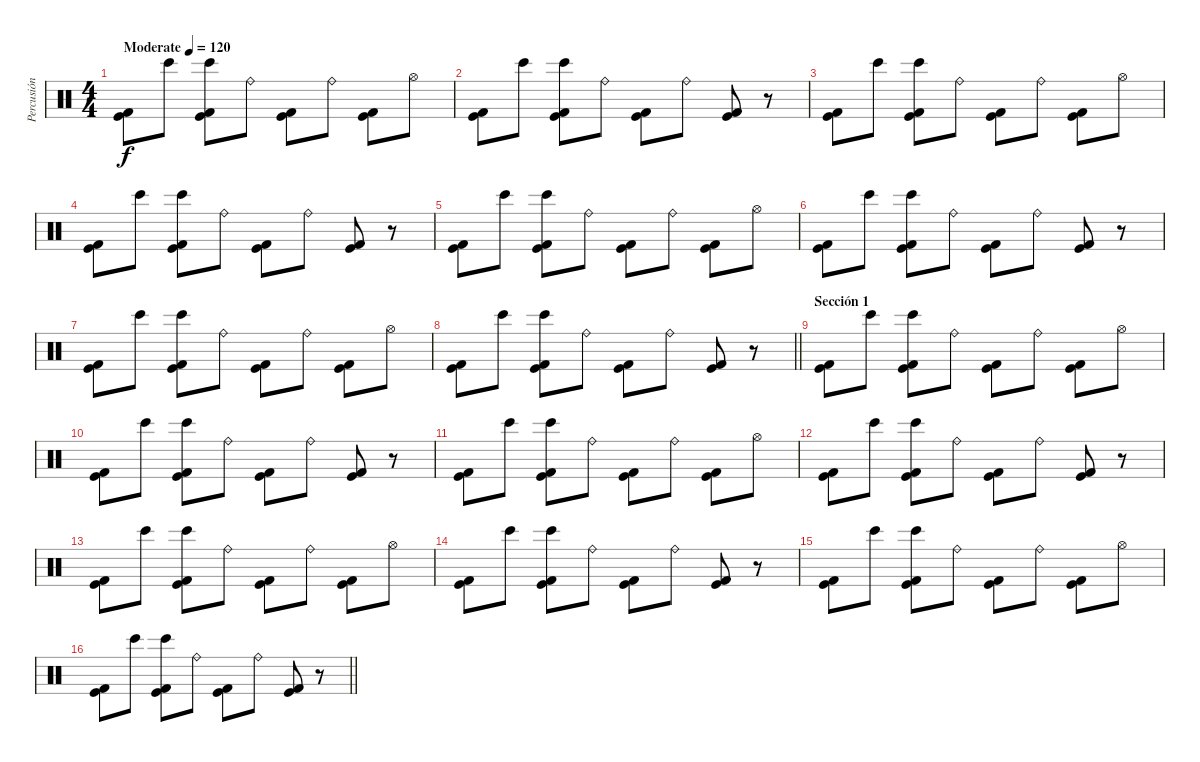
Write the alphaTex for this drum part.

\track ("Percusión 2" "Percusión ") {instrument percussion}
\staff {score}
\articulation defaults
\ts (4 4)
\tempo (120 "Moderate")
\clef neutral
\ks c
("Kick (hit)" "Kick (hit) 2").8{dy f} "Bongo High (hit)".8 ("Kick (hit) 2" "Kick (hit)" "Bongo High (hit)").8 "Ride (bell)".8 ("Kick (hit) 2" "Kick (hit)").8 "Ride (bell)".8 ("Kick (hit) 2" "Kick (hit)").8 "Hi-Hat (open)".8 |
("Kick (hit)" "Kick (hit) 2").8 "Bongo High (hit)".8 ("Kick (hit) 2" "Kick (hit)" "Bongo High (hit)").8 "Ride (bell)".8 ("Kick (hit) 2" "Kick (hit)").8 "Ride (bell)".8 ("Kick (hit) 2" "Kick (hit)").8 r.8 |
("Kick (hit)" "Kick (hit) 2").8 "Bongo High (hit)".8 ("Kick (hit) 2" "Kick (hit)" "Bongo High (hit)").8 "Ride (bell)".8 ("Kick (hit) 2" "Kick (hit)").8 "Ride (bell)".8 ("Kick (hit) 2" "Kick (hit)").8 "Hi-Hat (open)".8 |
("Kick (hit)" "Kick (hit) 2").8 "Bongo High (hit)".8 ("Kick (hit) 2" "Kick (hit)" "Bongo High (hit)").8 "Ride (bell)".8 ("Kick (hit) 2" "Kick (hit)").8 "Ride (bell)".8 ("Kick (hit) 2" "Kick (hit)").8 r.8 |
("Kick (hit)" "Kick (hit) 2").8 "Bongo High (hit)".8 ("Kick (hit) 2" "Kick (hit)" "Bongo High (hit)").8 "Ride (bell)".8 ("Kick (hit) 2" "Kick (hit)").8 "Ride (bell)".8 ("Kick (hit) 2" "Kick (hit)").8 "Hi-Hat (open)".8 |
("Kick (hit)" "Kick (hit) 2").8 "Bongo High (hit)".8 ("Kick (hit) 2" "Kick (hit)" "Bongo High (hit)").8 "Ride (bell)".8 ("Kick (hit) 2" "Kick (hit)").8 "Ride (bell)".8 ("Kick (hit) 2" "Kick (hit)").8 r.8 |
("Kick (hit)" "Kick (hit) 2").8 "Bongo High (hit)".8 ("Kick (hit) 2" "Kick (hit)" "Bongo High (hit)").8 "Ride (bell)".8 ("Kick (hit) 2" "Kick (hit)").8 "Ride (bell)".8 ("Kick (hit) 2" "Kick (hit)").8 "Hi-Hat (open)".8 |
\barLineRight lightlight
("Kick (hit)" "Kick (hit) 2").8 "Bongo High (hit)".8 ("Kick (hit) 2" "Kick (hit)" "Bongo High (hit)").8 "Ride (bell)".8 ("Kick (hit) 2" "Kick (hit)").8 "Ride (bell)".8 ("Kick (hit) 2" "Kick (hit)").8 r.8 |
\section ("" "Sección 1")
("Kick (hit)" "Kick (hit) 2").8 "Bongo High (hit)".8 ("Kick (hit) 2" "Kick (hit)" "Bongo High (hit)").8 "Ride (bell)".8 ("Kick (hit) 2" "Kick (hit)").8 "Ride (bell)".8 ("Kick (hit) 2" "Kick (hit)").8 "Hi-Hat (open)".8 |
("Kick (hit)" "Kick (hit) 2").8 "Bongo High (hit)".8 ("Kick (hit) 2" "Kick (hit)" "Bongo High (hit)").8 "Ride (bell)".8 ("Kick (hit) 2" "Kick (hit)").8 "Ride (bell)".8 ("Kick (hit) 2" "Kick (hit)").8 r.8 |
("Kick (hit)" "Kick (hit) 2").8 "Bongo High (hit)".8 ("Kick (hit) 2" "Kick (hit)" "Bongo High (hit)").8 "Ride (bell)".8 ("Kick (hit) 2" "Kick (hit)").8 "Ride (bell)".8 ("Kick (hit) 2" "Kick (hit)").8 "Hi-Hat (open)".8 |
("Kick (hit)" "Kick (hit) 2").8 "Bongo High (hit)".8 ("Kick (hit) 2" "Kick (hit)" "Bongo High (hit)").8 "Ride (bell)".8 ("Kick (hit) 2" "Kick (hit)").8 "Ride (bell)".8 ("Kick (hit) 2" "Kick (hit)").8 r.8 |
("Kick (hit)" "Kick (hit) 2").8 "Bongo High (hit)".8 ("Kick (hit) 2" "Kick (hit)" "Bongo High (hit)").8 "Ride (bell)".8 ("Kick (hit) 2" "Kick (hit)").8 "Ride (bell)".8 ("Kick (hit) 2" "Kick (hit)").8 "Hi-Hat (open)".8 |
("Kick (hit)" "Kick (hit) 2").8 "Bongo High (hit)".8 ("Kick (hit) 2" "Kick (hit)" "Bongo High (hit)").8 "Ride (bell)".8 ("Kick (hit) 2" "Kick (hit)").8 "Ride (bell)".8 ("Kick (hit) 2" "Kick (hit)").8 r.8 |
("Kick (hit)" "Kick (hit) 2").8 "Bongo High (hit)".8 ("Kick (hit) 2" "Kick (hit)" "Bongo High (hit)").8 "Ride (bell)".8 ("Kick (hit) 2" "Kick (hit)").8 "Ride (bell)".8 ("Kick (hit) 2" "Kick (hit)").8 "Hi-Hat (open)".8 |
\barLineRight lightlight
("Kick (hit)" "Kick (hit) 2").8 "Bongo High (hit)".8 ("Kick (hit) 2" "Kick (hit)" "Bongo High (hit)").8 "Ride (bell)".8 ("Kick (hit) 2" "Kick (hit)").8 "Ride (bell)".8 ("Kick (hit) 2" "Kick (hit)").8 r.8
